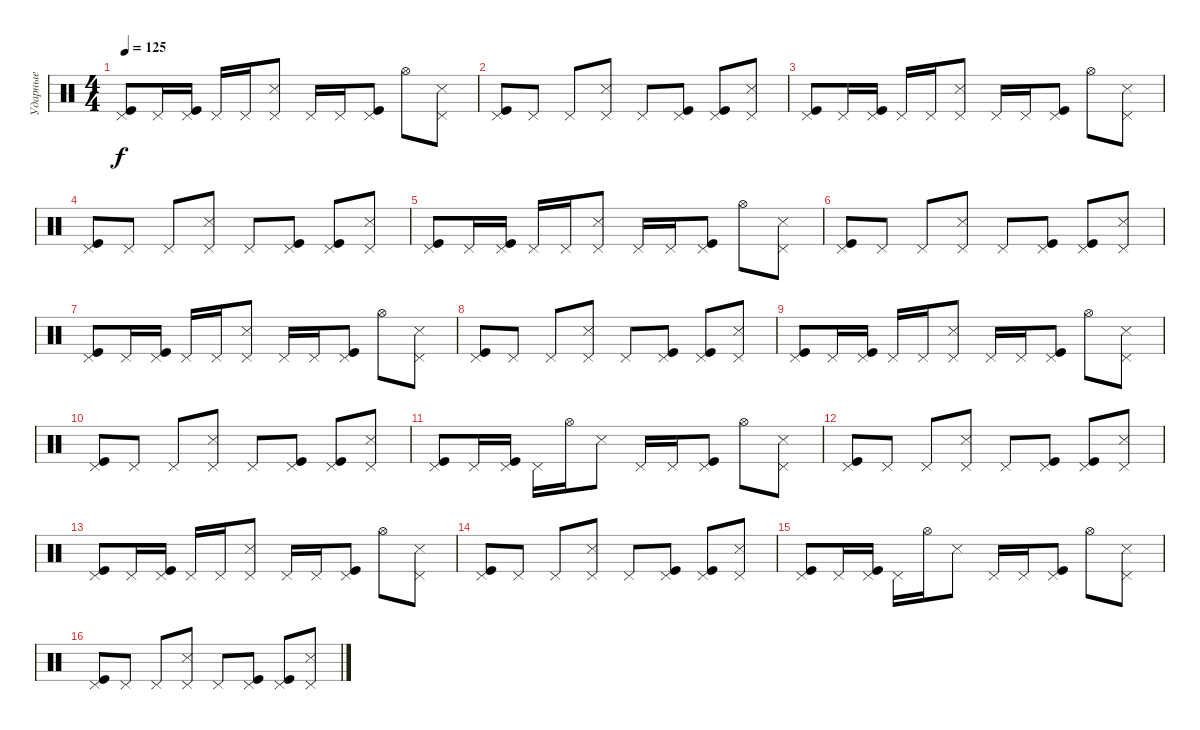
\track ("Ударные" "Ударные") {instrument percussion}
\staff {score}
\articulation defaults
\ts (4 4)
\tempo 125
\clef neutral
\ks c
("Pedal Hi-Hat (hit)" "Kick (hit)").8{dy f} "Pedal Hi-Hat (hit)".16 ("Pedal Hi-Hat (hit)" "Kick (hit)").16 "Pedal Hi-Hat (hit)".16 "Pedal Hi-Hat (hit)".16 ("Pedal Hi-Hat (hit)" "Snare (side stick) 3").8 "Pedal Hi-Hat (hit)".16 "Pedal Hi-Hat (hit)".16 ("Pedal Hi-Hat (hit)" "Kick (hit)").8 "Hi-Hat (open)".8 ("Pedal Hi-Hat (hit)" "Snare (side stick) 3").8 |
("Pedal Hi-Hat (hit)" "Kick (hit)").8 "Pedal Hi-Hat (hit)".8 "Pedal Hi-Hat (hit)".8 ("Pedal Hi-Hat (hit)" "Snare (side stick) 3").8 "Pedal Hi-Hat (hit)".8 ("Pedal Hi-Hat (hit)" "Kick (hit)").8 ("Pedal Hi-Hat (hit)" "Kick (hit)").8 ("Pedal Hi-Hat (hit)" "Snare (side stick) 3").8 |
("Pedal Hi-Hat (hit)" "Kick (hit)").8 "Pedal Hi-Hat (hit)".16 ("Pedal Hi-Hat (hit)" "Kick (hit)").16 "Pedal Hi-Hat (hit)".16 "Pedal Hi-Hat (hit)".16 ("Pedal Hi-Hat (hit)" "Snare (side stick) 3").8 "Pedal Hi-Hat (hit)".16 "Pedal Hi-Hat (hit)".16 ("Pedal Hi-Hat (hit)" "Kick (hit)").8 "Hi-Hat (open)".8 ("Pedal Hi-Hat (hit)" "Snare (side stick) 3").8 |
("Pedal Hi-Hat (hit)" "Kick (hit)").8 "Pedal Hi-Hat (hit)".8 "Pedal Hi-Hat (hit)".8 ("Pedal Hi-Hat (hit)" "Snare (side stick) 3").8 "Pedal Hi-Hat (hit)".8 ("Pedal Hi-Hat (hit)" "Kick (hit)").8 ("Pedal Hi-Hat (hit)" "Kick (hit)").8 ("Pedal Hi-Hat (hit)" "Snare (side stick) 3").8 |
("Pedal Hi-Hat (hit)" "Kick (hit)").8 "Pedal Hi-Hat (hit)".16 ("Pedal Hi-Hat (hit)" "Kick (hit)").16 "Pedal Hi-Hat (hit)".16 "Pedal Hi-Hat (hit)".16 ("Pedal Hi-Hat (hit)" "Snare (side stick) 3").8 "Pedal Hi-Hat (hit)".16 "Pedal Hi-Hat (hit)".16 ("Pedal Hi-Hat (hit)" "Kick (hit)").8 "Hi-Hat (open)".8 ("Pedal Hi-Hat (hit)" "Snare (side stick) 3").8 |
("Pedal Hi-Hat (hit)" "Kick (hit)").8 "Pedal Hi-Hat (hit)".8 "Pedal Hi-Hat (hit)".8 ("Pedal Hi-Hat (hit)" "Snare (side stick) 3").8 "Pedal Hi-Hat (hit)".8 ("Pedal Hi-Hat (hit)" "Kick (hit)").8 ("Pedal Hi-Hat (hit)" "Kick (hit)").8 ("Pedal Hi-Hat (hit)" "Snare (side stick) 3").8 |
("Pedal Hi-Hat (hit)" "Kick (hit)").8 "Pedal Hi-Hat (hit)".16 ("Pedal Hi-Hat (hit)" "Kick (hit)").16 "Pedal Hi-Hat (hit)".16 "Pedal Hi-Hat (hit)".16 ("Pedal Hi-Hat (hit)" "Snare (side stick) 3").8 "Pedal Hi-Hat (hit)".16 "Pedal Hi-Hat (hit)".16 ("Pedal Hi-Hat (hit)" "Kick (hit)").8 "Hi-Hat (open)".8 ("Pedal Hi-Hat (hit)" "Snare (side stick) 3").8 |
("Pedal Hi-Hat (hit)" "Kick (hit)").8 "Pedal Hi-Hat (hit)".8 "Pedal Hi-Hat (hit)".8 ("Pedal Hi-Hat (hit)" "Snare (side stick) 3").8 "Pedal Hi-Hat (hit)".8 ("Pedal Hi-Hat (hit)" "Kick (hit)").8 ("Pedal Hi-Hat (hit)" "Kick (hit)").8 ("Pedal Hi-Hat (hit)" "Snare (side stick) 3").8 |
("Pedal Hi-Hat (hit)" "Kick (hit)").8 "Pedal Hi-Hat (hit)".16 ("Pedal Hi-Hat (hit)" "Kick (hit)").16 "Pedal Hi-Hat (hit)".16 "Pedal Hi-Hat (hit)".16 ("Pedal Hi-Hat (hit)" "Snare (side stick) 3").8 "Pedal Hi-Hat (hit)".16 "Pedal Hi-Hat (hit)".16 ("Pedal Hi-Hat (hit)" "Kick (hit)").8 "Hi-Hat (open)".8 ("Pedal Hi-Hat (hit)" "Snare (side stick) 3").8 |
("Pedal Hi-Hat (hit)" "Kick (hit)").8 "Pedal Hi-Hat (hit)".8 "Pedal Hi-Hat (hit)".8 ("Pedal Hi-Hat (hit)" "Snare (side stick) 3").8 "Pedal Hi-Hat (hit)".8 ("Pedal Hi-Hat (hit)" "Kick (hit)").8 ("Pedal Hi-Hat (hit)" "Kick (hit)").8 ("Pedal Hi-Hat (hit)" "Snare (side stick) 3").8 |
("Pedal Hi-Hat (hit)" "Kick (hit)").8 "Pedal Hi-Hat (hit)".16 ("Pedal Hi-Hat (hit)" "Kick (hit)").16 "Pedal Hi-Hat (hit)".16 "Hi-Hat (open)".16 "Snare (side stick) 3".8 "Pedal Hi-Hat (hit)".16 "Pedal Hi-Hat (hit)".16 ("Pedal Hi-Hat (hit)" "Kick (hit)").8 "Hi-Hat (open)".8 ("Pedal Hi-Hat (hit)" "Snare (side stick) 3").8 |
("Pedal Hi-Hat (hit)" "Kick (hit)").8 "Pedal Hi-Hat (hit)".8 "Pedal Hi-Hat (hit)".8 ("Pedal Hi-Hat (hit)" "Snare (side stick) 3").8 "Pedal Hi-Hat (hit)".8 ("Pedal Hi-Hat (hit)" "Kick (hit)").8 ("Pedal Hi-Hat (hit)" "Kick (hit)").8 ("Pedal Hi-Hat (hit)" "Snare (side stick) 3").8 |
("Pedal Hi-Hat (hit)" "Kick (hit)").8 "Pedal Hi-Hat (hit)".16 ("Pedal Hi-Hat (hit)" "Kick (hit)").16 "Pedal Hi-Hat (hit)".16 "Pedal Hi-Hat (hit)".16 ("Pedal Hi-Hat (hit)" "Snare (side stick) 3").8 "Pedal Hi-Hat (hit)".16 "Pedal Hi-Hat (hit)".16 ("Pedal Hi-Hat (hit)" "Kick (hit)").8 "Hi-Hat (open)".8 ("Pedal Hi-Hat (hit)" "Snare (side stick) 3").8 |
("Pedal Hi-Hat (hit)" "Kick (hit)").8 "Pedal Hi-Hat (hit)".8 "Pedal Hi-Hat (hit)".8 ("Pedal Hi-Hat (hit)" "Snare (side stick) 3").8 "Pedal Hi-Hat (hit)".8 ("Pedal Hi-Hat (hit)" "Kick (hit)").8 ("Pedal Hi-Hat (hit)" "Kick (hit)").8 ("Pedal Hi-Hat (hit)" "Snare (side stick) 3").8 |
("Pedal Hi-Hat (hit)" "Kick (hit)").8 "Pedal Hi-Hat (hit)".16 ("Pedal Hi-Hat (hit)" "Kick (hit)").16 "Pedal Hi-Hat (hit)".16 "Hi-Hat (open)".16 "Snare (side stick) 3".8 "Pedal Hi-Hat (hit)".16 "Pedal Hi-Hat (hit)".16 ("Pedal Hi-Hat (hit)" "Kick (hit)").8 "Hi-Hat (open)".8 ("Pedal Hi-Hat (hit)" "Snare (side stick) 3").8 |
("Pedal Hi-Hat (hit)" "Kick (hit)").8 "Pedal Hi-Hat (hit)".8 "Pedal Hi-Hat (hit)".8 ("Pedal Hi-Hat (hit)" "Snare (side stick) 3").8 "Pedal Hi-Hat (hit)".8 ("Pedal Hi-Hat (hit)" "Kick (hit)").8 ("Pedal Hi-Hat (hit)" "Kick (hit)").8 ("Pedal Hi-Hat (hit)" "Snare (side stick) 3").8
